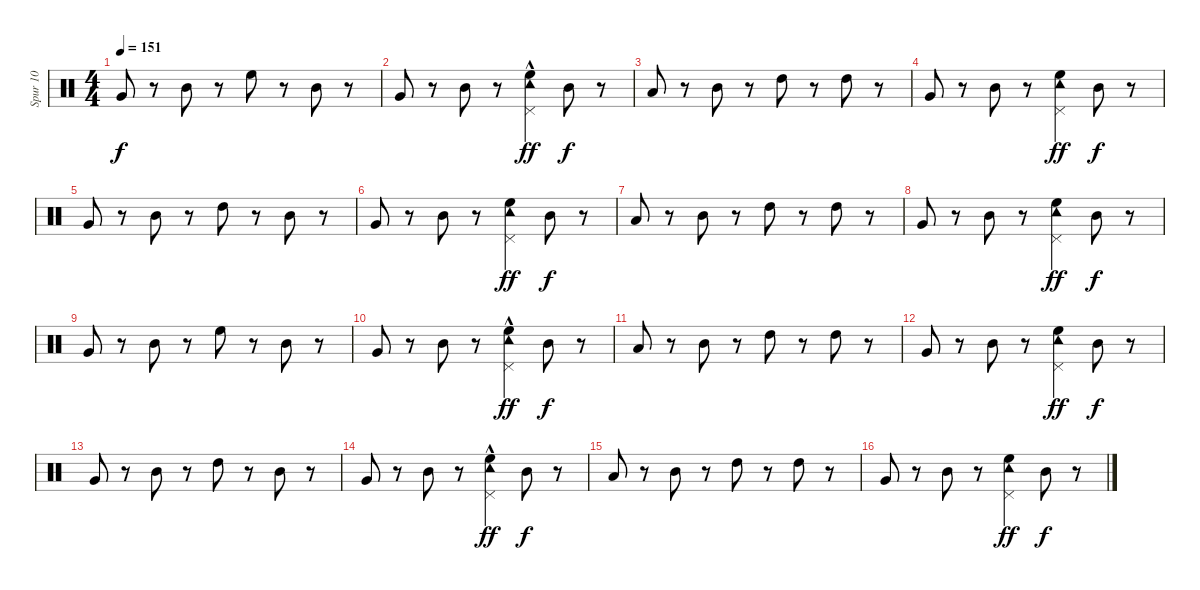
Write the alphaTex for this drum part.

\track ("Spur 10" "Spur 10") {instrument percussion}
\staff {score}
\articulation defaults
\ts (4 4)
\tempo 151
\clef neutral
\ks c "Very Low Tom (hit)".8{dy f}
r.8 "Mid Tom (hit)".8 r.8 "High Floor Tom (hit)".8 r.8 "Mid Tom (hit)".8 r.8 |
"Very Low Tom (hit)".8 r.8 "Mid Tom (hit)".8 r.8 ("Pedal Hi-Hat (hit)" "Tambourine (hit)"{hac} "High Floor Tom (hit)").4{dy ff} "Mid Tom (hit)".8{dy f} r.8 |
"Low Tom (hit)".8 r.8 "Mid Tom (hit)".8 r.8 "High Tom (hit)".8 r.8 "High Tom (hit)".8 r.8 |
"Very Low Tom (hit)".8 r.8 "Mid Tom (hit)".8 r.8 ("Pedal Hi-Hat (hit)" "Tambourine (hit)" "High Floor Tom (hit)").4{dy ff} "Mid Tom (hit)".8{dy f} r.8 |
"Very Low Tom (hit)".8 r.8 "Mid Tom (hit)".8 r.8 "High Tom (hit)".8 r.8 "Mid Tom (hit)".8 r.8 |
"Very Low Tom (hit)".8 r.8 "Mid Tom (hit)".8 r.8 ("Pedal Hi-Hat (hit)" "Tambourine (hit)" "High Floor Tom (hit)").4{dy ff} "Mid Tom (hit)".8{dy f} r.8 |
"Low Tom (hit)".8 r.8 "Mid Tom (hit)".8 r.8 "High Tom (hit)".8 r.8 "High Tom (hit)".8 r.8 |
"Very Low Tom (hit)".8 r.8 "Mid Tom (hit)".8 r.8 ("Tambourine (hit)" "Pedal Hi-Hat (hit)" "High Floor Tom (hit)").4{dy ff} "Mid Tom (hit)".8{dy f} r.8 |
"Very Low Tom (hit)".8 r.8 "Mid Tom (hit)".8 r.8 "High Floor Tom (hit)".8 r.8 "Mid Tom (hit)".8 r.8 |
"Very Low Tom (hit)".8 r.8 "Mid Tom (hit)".8 r.8 ("Pedal Hi-Hat (hit)" "Tambourine (hit)"{hac} "High Floor Tom (hit)").4{dy ff} "Mid Tom (hit)".8{dy f} r.8 |
"Low Tom (hit)".8 r.8 "Mid Tom (hit)".8 r.8 "High Tom (hit)".8 r.8 "High Tom (hit)".8 r.8 |
"Very Low Tom (hit)".8 r.8 "Mid Tom (hit)".8 r.8 ("Pedal Hi-Hat (hit)" "Tambourine (hit)" "High Floor Tom (hit)").4{dy ff} "Mid Tom (hit)".8{dy f} r.8 |
"Very Low Tom (hit)".8 r.8 "Mid Tom (hit)".8 r.8 "High Tom (hit)".8 r.8 "Mid Tom (hit)".8 r.8 |
"Very Low Tom (hit)".8 r.8 "Mid Tom (hit)".8 r.8 ("Pedal Hi-Hat (hit)" "Tambourine (hit)"{hac} "High Floor Tom (hit)").4{dy ff} "Mid Tom (hit)".8{dy f} r.8 |
"Low Tom (hit)".8 r.8 "Mid Tom (hit)".8 r.8 "High Tom (hit)".8 r.8 "High Tom (hit)".8 r.8 |
"Very Low Tom (hit)".8 r.8 "Mid Tom (hit)".8 r.8 ("Pedal Hi-Hat (hit)" "Tambourine (hit)" "High Floor Tom (hit)").4{dy ff} "Mid Tom (hit)".8{dy f} r.8
